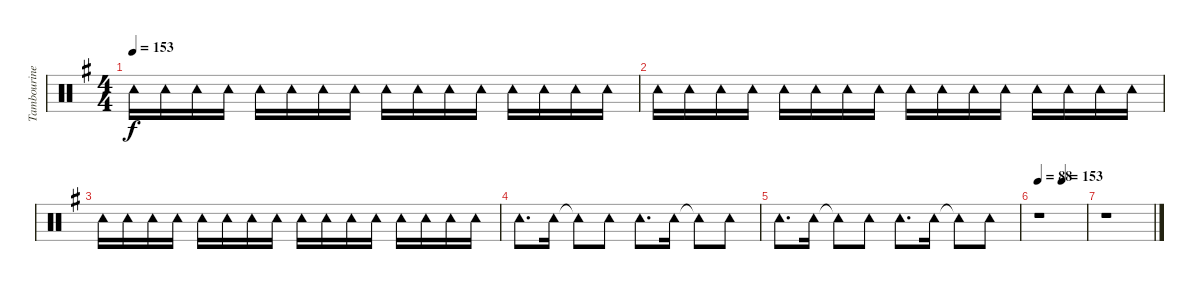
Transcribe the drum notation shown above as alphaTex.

\track ("Tambourine" "Tambourine") {instrument percussion}
\staff {score}
\articulation defaults
\ts (4 4)
\tempo 153
\clef neutral
\ks g "Tambourine (hit)".16{dy f} "Tambourine (hit)".16 "Tambourine (hit)".16 "Tambourine (hit)".16 "Tambourine (hit)".16 "Tambourine (hit)".16 "Tambourine (hit)".16 "Tambourine (hit)".16 "Tambourine (hit)".16 "Tambourine (hit)".16 "Tambourine (hit)".16 "Tambourine (hit)".16 "Tambourine (hit)".16 "Tambourine (hit)".16 "Tambourine (hit)".16 "Tambourine (hit)".16
|
"Tambourine (hit)".16 "Tambourine (hit)".16 "Tambourine (hit)".16 "Tambourine (hit)".16 "Tambourine (hit)".16 "Tambourine (hit)".16 "Tambourine (hit)".16 "Tambourine (hit)".16 "Tambourine (hit)".16 "Tambourine (hit)".16 "Tambourine (hit)".16 "Tambourine (hit)".16 "Tambourine (hit)".16 "Tambourine (hit)".16 "Tambourine (hit)".16 "Tambourine (hit)".16 |
"Tambourine (hit)".16 "Tambourine (hit)".16 "Tambourine (hit)".16 "Tambourine (hit)".16 "Tambourine (hit)".16 "Tambourine (hit)".16 "Tambourine (hit)".16 "Tambourine (hit)".16 "Tambourine (hit)".16 "Tambourine (hit)".16 "Tambourine (hit)".16 "Tambourine (hit)".16 "Tambourine (hit)".16 "Tambourine (hit)".16 "Tambourine (hit)".16 "Tambourine (hit)".16 |
"Tambourine (hit)".8{d} "Tambourine (hit)".16 "Tambourine (hit)"{t}.8 "Tambourine (hit)".8 "Tambourine (hit)".8{d} "Tambourine (hit)".16 "Tambourine (hit)"{t}.8 "Tambourine (hit)".8 |
"Tambourine (hit)".8{d} "Tambourine (hit)".16 "Tambourine (hit)"{t}.8 "Tambourine (hit)".8 "Tambourine (hit)".8{d} "Tambourine (hit)".16 "Tambourine (hit)"{t}.8 "Tambourine (hit)".8 |
\tempo 88
\tempo (153 0.5)
r.1 |
r.1
